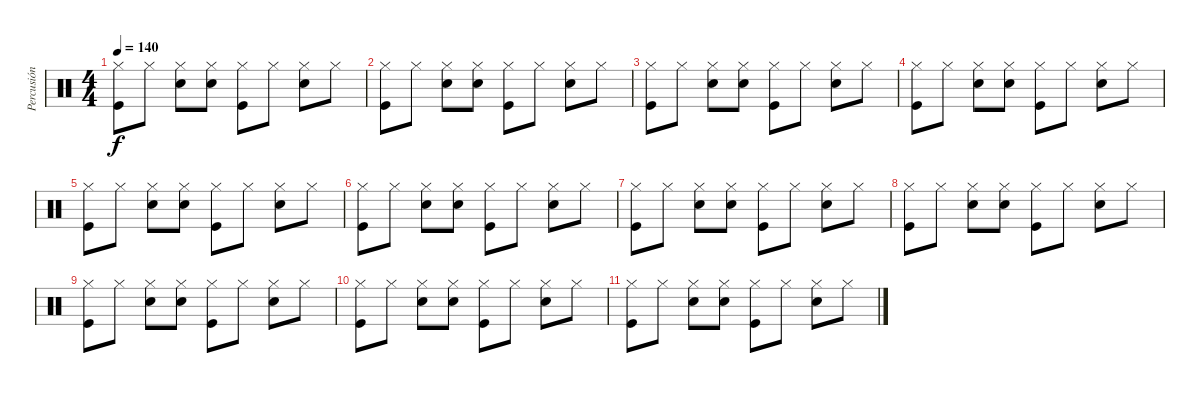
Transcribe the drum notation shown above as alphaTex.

\track ("Percusión" "Percusión") {instrument percussion}
\staff {score}
\articulation defaults
\ts (4 4)
\tempo 140
\clef neutral
\ks c
("Hi-Hat (closed)" "Kick (hit)").8{dy f} "Hi-Hat (closed)".8 ("Snare (hit) 2" "Hi-Hat (closed)").8 ("Hi-Hat (closed)" "Snare (hit) 2").8 ("Kick (hit)" "Hi-Hat (closed)").8 "Hi-Hat (closed)".8 ("Hi-Hat (closed)" "Snare (hit) 2").8 "Hi-Hat (closed)".8 |
("Hi-Hat (closed)" "Kick (hit)").8 "Hi-Hat (closed)".8 ("Snare (hit) 2" "Hi-Hat (closed)").8 ("Hi-Hat (closed)" "Snare (hit) 2").8 ("Kick (hit)" "Hi-Hat (closed)").8 "Hi-Hat (closed)".8 ("Hi-Hat (closed)" "Snare (hit) 2").8 "Hi-Hat (closed)".8 |
("Hi-Hat (closed)" "Kick (hit)").8 "Hi-Hat (closed)".8 ("Snare (hit) 2" "Hi-Hat (closed)").8 ("Hi-Hat (closed)" "Snare (hit) 2").8 ("Kick (hit)" "Hi-Hat (closed)").8 "Hi-Hat (closed)".8 ("Hi-Hat (closed)" "Snare (hit) 2").8 "Hi-Hat (closed)".8 |
("Hi-Hat (closed)" "Kick (hit)").8 "Hi-Hat (closed)".8 ("Snare (hit) 2" "Hi-Hat (closed)").8 ("Hi-Hat (closed)" "Snare (hit) 2").8 ("Kick (hit)" "Hi-Hat (closed)").8 "Hi-Hat (closed)".8 ("Hi-Hat (closed)" "Snare (hit) 2").8 "Hi-Hat (closed)".8 |
("Hi-Hat (closed)" "Kick (hit)").8 "Hi-Hat (closed)".8 ("Snare (hit) 2" "Hi-Hat (closed)").8 ("Hi-Hat (closed)" "Snare (hit) 2").8 ("Kick (hit)" "Hi-Hat (closed)").8 "Hi-Hat (closed)".8 ("Hi-Hat (closed)" "Snare (hit) 2").8 "Hi-Hat (closed)".8 |
("Hi-Hat (closed)" "Kick (hit)").8 "Hi-Hat (closed)".8 ("Snare (hit) 2" "Hi-Hat (closed)").8 ("Hi-Hat (closed)" "Snare (hit) 2").8 ("Kick (hit)" "Hi-Hat (closed)").8 "Hi-Hat (closed)".8 ("Hi-Hat (closed)" "Snare (hit) 2").8 "Hi-Hat (closed)".8 |
("Hi-Hat (closed)" "Kick (hit)").8 "Hi-Hat (closed)".8 ("Snare (hit) 2" "Hi-Hat (closed)").8 ("Hi-Hat (closed)" "Snare (hit) 2").8 ("Kick (hit)" "Hi-Hat (closed)").8 "Hi-Hat (closed)".8 ("Hi-Hat (closed)" "Snare (hit) 2").8 "Hi-Hat (closed)".8 |
("Hi-Hat (closed)" "Kick (hit)").8 "Hi-Hat (closed)".8 ("Snare (hit) 2" "Hi-Hat (closed)").8 ("Hi-Hat (closed)" "Snare (hit) 2").8 ("Kick (hit)" "Hi-Hat (closed)").8 "Hi-Hat (closed)".8 ("Hi-Hat (closed)" "Snare (hit) 2").8 "Hi-Hat (closed)".8 |
("Hi-Hat (closed)" "Kick (hit)").8 "Hi-Hat (closed)".8 ("Snare (hit) 2" "Hi-Hat (closed)").8 ("Hi-Hat (closed)" "Snare (hit) 2").8 ("Kick (hit)" "Hi-Hat (closed)").8 "Hi-Hat (closed)".8 ("Hi-Hat (closed)" "Snare (hit) 2").8 "Hi-Hat (closed)".8 |
("Hi-Hat (closed)" "Kick (hit)").8 "Hi-Hat (closed)".8 ("Snare (hit) 2" "Hi-Hat (closed)").8 ("Hi-Hat (closed)" "Snare (hit) 2").8 ("Kick (hit)" "Hi-Hat (closed)").8 "Hi-Hat (closed)".8 ("Hi-Hat (closed)" "Snare (hit) 2").8 "Hi-Hat (closed)".8 |
("Hi-Hat (closed)" "Kick (hit)").8 "Hi-Hat (closed)".8 ("Snare (hit) 2" "Hi-Hat (closed)").8 ("Hi-Hat (closed)" "Snare (hit) 2").8 ("Kick (hit)" "Hi-Hat (closed)").8 "Hi-Hat (closed)".8 ("Hi-Hat (closed)" "Snare (hit) 2").8 "Hi-Hat (closed)".8
